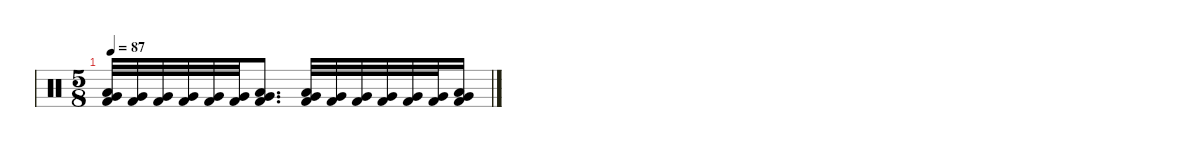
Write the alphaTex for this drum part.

\defaultSystemsLayout 4
\hideDynamics
\bracketExtendMode nobrackets
\singleTrackTrackNamePolicy hidden
\multiTrackTrackNamePolicy hidden
\otherSystemsTrackNameOrientation horizontal
\track ("Drums" "drm.") {instrument percussion}
\staff {score}
\articulation defaults
\ts (5 8)
\beaming (8 3 2)
\tempo 87
\clef neutral
\ks c
("Very Low Tom (hit)" "Low Floor Tom (hit)" "Kick (hit) 2").32{dy f beam Up} ("Very Low Tom (hit)" "Kick (hit) 2").32{beam Up} ("Very Low Tom (hit)" "Kick (hit) 2").32{beam Up} ("Very Low Tom (hit)" "Kick (hit) 2").32{beam Up} ("Very Low Tom (hit)" "Kick (hit) 2").32{beam Up} ("Very Low Tom (hit)" "Kick (hit) 2").32{beam Up} ("Very Low Tom (hit)" "Low Floor Tom (hit)" "Kick (hit) 2").8{d beam Up} ("Very Low Tom (hit)" "Low Floor Tom (hit)" "Kick (hit) 2").32{beam Up} ("Very Low Tom (hit)" "Kick (hit) 2").32{beam Up} ("Very Low Tom (hit)" "Kick (hit) 2").32{beam Up} ("Very Low Tom (hit)" "Kick (hit) 2").32{beam Up} ("Very Low Tom (hit)" "Kick (hit) 2").32{beam Up} ("Very Low Tom (hit)" "Kick (hit) 2").32{beam Up} ("Very Low Tom (hit)" "Low Floor Tom (hit)" "Kick (hit) 2").16{beam Up}
